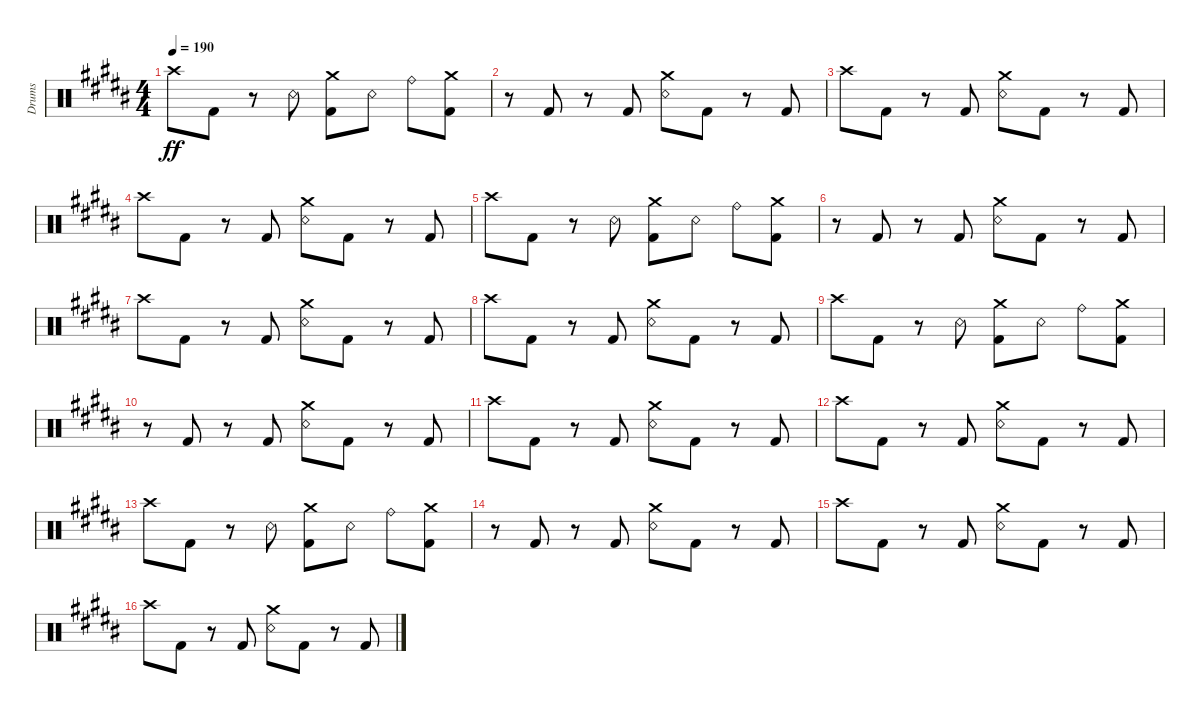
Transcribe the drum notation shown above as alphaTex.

\bracketExtendMode groupsimilarinstruments
\otherSystemsTrackNameOrientation horizontal
\track ("Drumkit" "Drums") {instrument percussion}
\staff {score}
\articulation defaults
\ts (4 4)
\tempo 190
\clef neutral
\ks b "Crash high (hit)"{acc forcenatural}.8{dy ff} "Kick (hit) 2"{acc forcenatural}.8
r.8 "Snare (rim shot)"{acc forcenatural}.8 ("Crash medium (hit)"{acc forcenatural} "Kick (hit) 2"{acc forcenatural}).8 "Snare (rim shot)"{acc forcenatural}.8 "Ride (bell)"{acc forcenatural}.8 ("Kick (hit) 2"{acc forcenatural} "Crash medium (hit)"{acc forcenatural}).8 |
r.8 "Kick (hit) 2"{acc forcenatural}.8 r.8 "Kick (hit) 2"{acc forcenatural}.8 ("Snare (rim shot)"{acc forcenatural} "Crash medium (hit)"{acc forcenatural}).8 "Kick (hit) 2"{acc forcenatural}.8 r.8 "Kick (hit) 2"{acc forcenatural}.8 |
"Crash high (hit)"{acc forcenatural}.8 "Kick (hit) 2"{acc forcenatural}.8 r.8 "Kick (hit) 2"{acc forcenatural}.8 ("Snare (rim shot)"{acc forcenatural} "Crash medium (hit)"{acc forcenatural}).8 "Kick (hit) 2"{acc forcenatural}.8 r.8 "Kick (hit) 2"{acc forcenatural}.8 |
"Crash high (hit)"{acc forcenatural}.8 "Kick (hit) 2"{acc forcenatural}.8 r.8 "Kick (hit) 2"{acc forcenatural}.8 ("Snare (rim shot)"{acc forcenatural} "Crash medium (hit)"{acc forcenatural}).8 "Kick (hit) 2"{acc forcenatural}.8 r.8 "Kick (hit) 2"{acc forcenatural}.8 |
"Crash high (hit)"{acc forcenatural}.8 "Kick (hit) 2"{acc forcenatural}.8 r.8 "Snare (rim shot)"{acc forcenatural}.8 ("Crash medium (hit)"{acc forcenatural} "Kick (hit) 2"{acc forcenatural}).8 "Snare (rim shot)"{acc forcenatural}.8 "Ride (bell)"{acc forcenatural}.8 ("Kick (hit) 2"{acc forcenatural} "Crash medium (hit)"{acc forcenatural}).8 |
r.8 "Kick (hit) 2"{acc forcenatural}.8 r.8 "Kick (hit) 2"{acc forcenatural}.8 ("Snare (rim shot)"{acc forcenatural} "Crash medium (hit)"{acc forcenatural}).8 "Kick (hit) 2"{acc forcenatural}.8 r.8 "Kick (hit) 2"{acc forcenatural}.8 |
"Crash high (hit)"{acc forcenatural}.8 "Kick (hit) 2"{acc forcenatural}.8 r.8 "Kick (hit) 2"{acc forcenatural}.8 ("Snare (rim shot)"{acc forcenatural} "Crash medium (hit)"{acc forcenatural}).8 "Kick (hit) 2"{acc forcenatural}.8 r.8 "Kick (hit) 2"{acc forcenatural}.8 |
"Crash high (hit)"{acc forcenatural}.8 "Kick (hit) 2"{acc forcenatural}.8 r.8 "Kick (hit) 2"{acc forcenatural}.8 ("Snare (rim shot)"{acc forcenatural} "Crash medium (hit)"{acc forcenatural}).8 "Kick (hit) 2"{acc forcenatural}.8 r.8 "Kick (hit) 2"{acc forcenatural}.8 |
"Crash high (hit)"{acc forcenatural}.8 "Kick (hit) 2"{acc forcenatural}.8 r.8 "Snare (rim shot)"{acc forcenatural}.8 ("Crash medium (hit)"{acc forcenatural} "Kick (hit) 2"{acc forcenatural}).8 "Snare (rim shot)"{acc forcenatural}.8 "Ride (bell)"{acc forcenatural}.8 ("Kick (hit) 2"{acc forcenatural} "Crash medium (hit)"{acc forcenatural}).8 |
r.8 "Kick (hit) 2"{acc forcenatural}.8 r.8 "Kick (hit) 2"{acc forcenatural}.8 ("Snare (rim shot)"{acc forcenatural} "Crash medium (hit)"{acc forcenatural}).8 "Kick (hit) 2"{acc forcenatural}.8 r.8 "Kick (hit) 2"{acc forcenatural}.8 |
"Crash high (hit)"{acc forcenatural}.8 "Kick (hit) 2"{acc forcenatural}.8 r.8 "Kick (hit) 2"{acc forcenatural}.8 ("Snare (rim shot)"{acc forcenatural} "Crash medium (hit)"{acc forcenatural}).8 "Kick (hit) 2"{acc forcenatural}.8 r.8 "Kick (hit) 2"{acc forcenatural}.8 |
"Crash high (hit)"{acc forcenatural}.8 "Kick (hit) 2"{acc forcenatural}.8 r.8 "Kick (hit) 2"{acc forcenatural}.8 ("Snare (rim shot)"{acc forcenatural} "Crash medium (hit)"{acc forcenatural}).8 "Kick (hit) 2"{acc forcenatural}.8 r.8 "Kick (hit) 2"{acc forcenatural}.8 |
"Crash high (hit)"{acc forcenatural}.8 "Kick (hit) 2"{acc forcenatural}.8 r.8 "Snare (rim shot)"{acc forcenatural}.8 ("Crash medium (hit)"{acc forcenatural} "Kick (hit) 2"{acc forcenatural}).8 "Snare (rim shot)"{acc forcenatural}.8 "Ride (bell)"{acc forcenatural}.8 ("Kick (hit) 2"{acc forcenatural} "Crash medium (hit)"{acc forcenatural}).8 |
r.8 "Kick (hit) 2"{acc forcenatural}.8 r.8 "Kick (hit) 2"{acc forcenatural}.8 ("Snare (rim shot)"{acc forcenatural} "Crash medium (hit)"{acc forcenatural}).8 "Kick (hit) 2"{acc forcenatural}.8 r.8 "Kick (hit) 2"{acc forcenatural}.8 |
"Crash high (hit)"{acc forcenatural}.8 "Kick (hit) 2"{acc forcenatural}.8 r.8 "Kick (hit) 2"{acc forcenatural}.8 ("Snare (rim shot)"{acc forcenatural} "Crash medium (hit)"{acc forcenatural}).8 "Kick (hit) 2"{acc forcenatural}.8 r.8 "Kick (hit) 2"{acc forcenatural}.8 |
"Crash high (hit)"{acc forcenatural}.8 "Kick (hit) 2"{acc forcenatural}.8 r.8 "Kick (hit) 2"{acc forcenatural}.8 ("Snare (rim shot)"{acc forcenatural} "Crash medium (hit)"{acc forcenatural}).8 "Kick (hit) 2"{acc forcenatural}.8 r.8 "Kick (hit) 2"{acc forcenatural}.8
